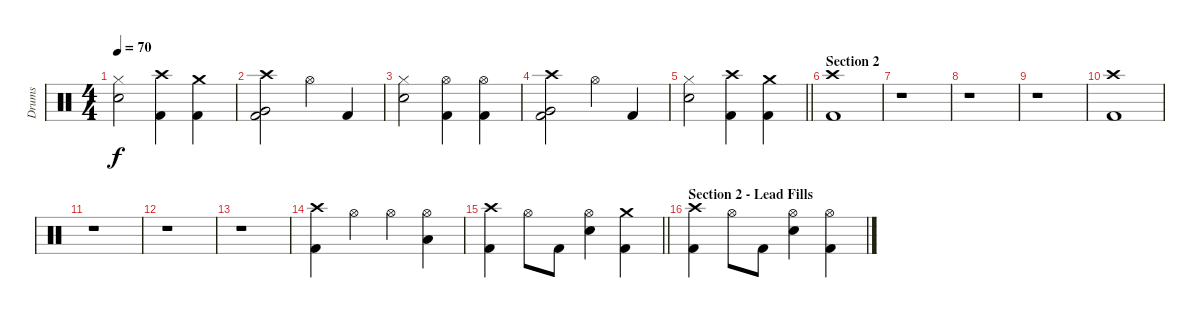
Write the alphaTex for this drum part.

\track ("Drums" "Drums") {instrument percussion}
\staff {score}
\articulation defaults
\ts (4 4)
\tempo 70
\clef neutral
\ks c
("Hi-Hat (closed)" "Electric Snare (hit)").2{dy f} ("Crash high (hit)" "Kick (hit) 2").4 ("Crash medium (hit)" "Kick (hit) 2").4 |
("Crash high (hit)" "Very Low Tom (hit)" "Kick (hit) 2").2 "Hi-Hat (open)".4 "Kick (hit) 2".4 |
("Hi-Hat (closed)" "Electric Snare (hit)").2 ("Hi-Hat (open)" "Kick (hit) 2").4 ("Hi-Hat (open)" "Kick (hit) 2").4 |
("Crash high (hit)" "Very Low Tom (hit)" "Kick (hit) 2").2 "Hi-Hat (open)".4 "Kick (hit) 2".4 |
\barLineRight lightlight
("Hi-Hat (closed)" "Electric Snare (hit)").2 ("Crash high (hit)" "Kick (hit) 2").4 ("Crash medium (hit)" "Kick (hit) 2").4 |
\section ("" "Section 2")
("Crash high (hit)" "Kick (hit) 2").1 |
r.1 |
r.1 |
r.1 |
("Crash high (hit)" "Kick (hit) 2").1 |
r.1 |
r.1 |
r.1 |
("Crash high (hit)" "Kick (hit) 2").4 "Hi-Hat (open)".4 "Hi-Hat (open)".4 ("Hi-Hat (open)" "Low Floor Tom (hit)").4 |
\barLineRight lightlight
("Crash high (hit)" "Kick (hit) 2").4 "Hi-Hat (open)".8 "Kick (hit) 2".8 ("Hi-Hat (open)" "Electric Snare (hit)").4 ("Crash medium (hit)" "Kick (hit) 2").4 |
\section ("" "Section 2 - Lead Fills")
("Crash high (hit)" "Kick (hit) 2").4 "Hi-Hat (open)".8 "Kick (hit) 2".8 ("Hi-Hat (open)" "Electric Snare (hit)").4 ("Hi-Hat (open)" "Kick (hit) 2").4
